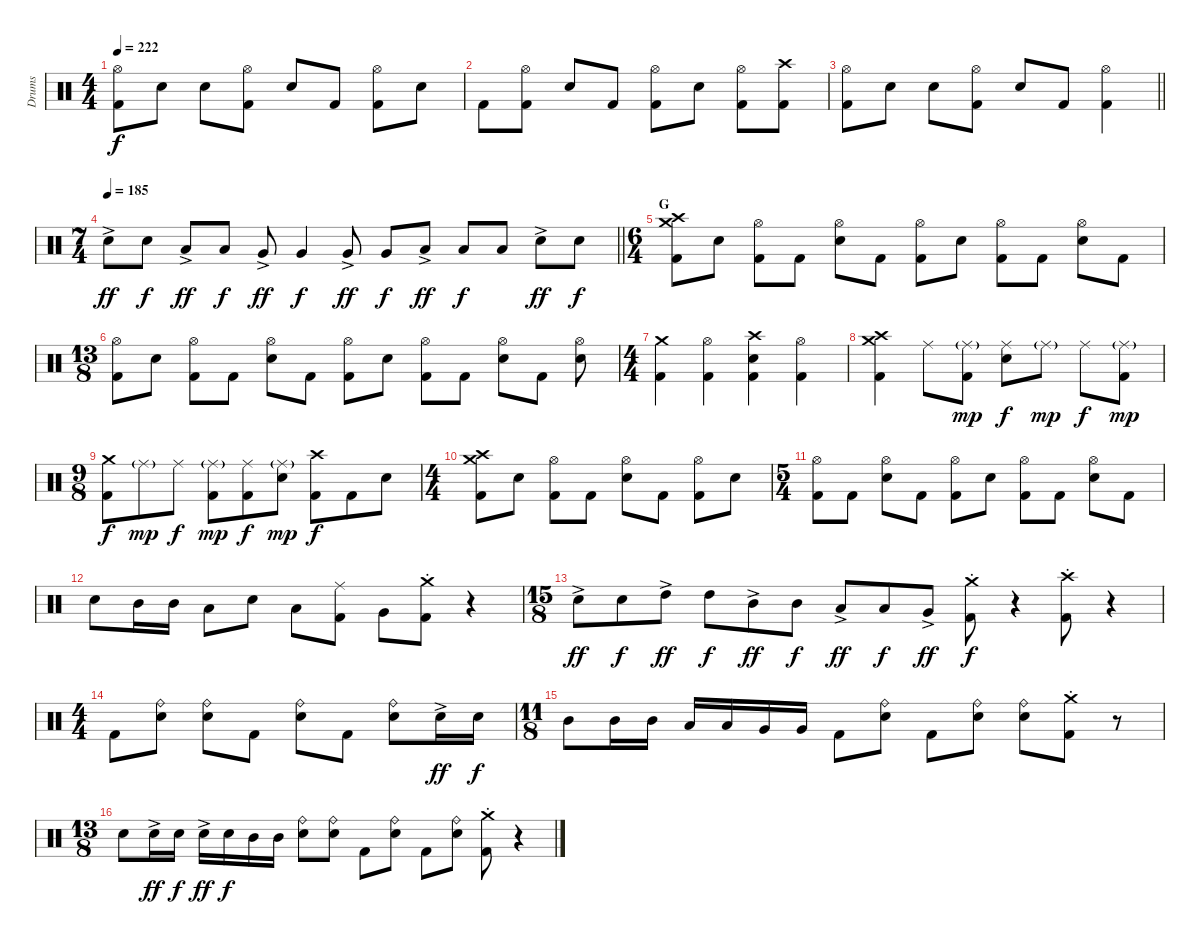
\track ("Drums" "Drums") {instrument percussion}
\staff {score}
\articulation defaults
\ts (4 4)
\tempo 222
\clef neutral
\ks c
("Hi-Hat (open)" "Kick (hit) 2").8{dy f} "Electric Snare (hit)".8 "Electric Snare (hit)".8 ("Hi-Hat (open)" "Kick (hit) 2").8 "Electric Snare (hit)".8 "Kick (hit) 2".8 ("Hi-Hat (open)" "Kick (hit) 2").8 "Electric Snare (hit)".8 |
"Kick (hit) 2".8 ("Hi-Hat (open)" "Kick (hit) 2").8 "Electric Snare (hit)".8 "Kick (hit) 2".8 ("Hi-Hat (open)" "Kick (hit) 2").8 "Electric Snare (hit)".8 ("Hi-Hat (open)" "Kick (hit) 2").8 ("Crash high (hit)" "Kick (hit) 2").8 |
\barLineRight lightlight
("Hi-Hat (open)" "Kick (hit) 2").8 "Electric Snare (hit)".8 "Electric Snare (hit)".8 ("Hi-Hat (open)" "Kick (hit) 2").8 "Electric Snare (hit)".8 "Kick (hit) 2".8 ("Hi-Hat (open)" "Kick (hit) 2").4 |
\ts (7 4)
\section ("" "")
\tempo 185
\barLineRight lightlight "Electric Snare (hit)"{ac}.8{dy ff} "Electric Snare (hit)".8{dy f} "Low Tom (hit)"{ac}.8{dy ff} "Low Tom (hit)".8{dy f} "Very Low Tom (hit)"{ac}.8{dy ff} "Very Low Tom (hit)".4{dy f} "Very Low Tom (hit)"{ac}.8{dy ff} "Very Low Tom (hit)".8{dy f} "Low Floor Tom (hit)"{ac}.8{dy ff} "Low Floor Tom (hit)".8{dy f} "Low Floor Tom (hit)".8 "Electric Snare (hit)"{ac}.8{dy ff} "Electric Snare (hit)".8{dy f}
|
\ts (6 4)
\section ("" "G")
("Crash medium (hit)" "Crash high (hit)" "Kick (hit) 2").8 "Electric Snare (hit)".8 ("Hi-Hat (open)" "Kick (hit) 2").8 "Kick (hit) 2".8 ("Hi-Hat (open)" "Electric Snare (hit)").8 "Kick (hit) 2".8 ("Hi-Hat (open)" "Kick (hit) 2").8 "Electric Snare (hit)".8 ("Hi-Hat (open)" "Kick (hit) 2").8 "Kick (hit) 2".8 ("Hi-Hat (open)" "Electric Snare (hit)").8 "Kick (hit) 2".8 |
\ts (13 8)
("Hi-Hat (open)" "Kick (hit) 2").8 "Electric Snare (hit)".8 ("Hi-Hat (open)" "Kick (hit) 2").8 "Kick (hit) 2".8 ("Hi-Hat (open)" "Electric Snare (hit)").8 "Kick (hit) 2".8 ("Hi-Hat (open)" "Kick (hit) 2").8 "Electric Snare (hit)".8 ("Hi-Hat (open)" "Kick (hit) 2").8 "Kick (hit) 2".8 ("Hi-Hat (open)" "Electric Snare (hit)").8 "Kick (hit) 2".8 ("Hi-Hat (open)" "Electric Snare (hit)").8 |
\ts (4 4)
("Crash medium (hit)" "Kick (hit) 2").4 ("Hi-Hat (open)" "Kick (hit) 2").4 ("Crash high (hit)" "Electric Snare (hit)" "Kick (hit) 2").4 ("Hi-Hat (open)" "Kick (hit) 2").4 |
("Crash medium (hit)" "Crash high (hit)" "Kick (hit) 2").4 "Ride (middle)".8 ("Ride (middle)"{g} "Kick (hit) 2").8{dy mp} ("Ride (middle)" "Electric Snare (hit)").8{dy f} "Ride (middle)"{g}.8{dy mp} "Ride (middle)".8{dy f} ("Ride (middle)"{g} "Kick (hit) 2").8{dy mp} |
\ts (9 8)
("Crash medium (hit)" "Kick (hit) 2").8{dy f} "Ride (middle)"{g}.8{dy mp} "Ride (middle)".8{dy f} ("Ride (middle)"{g} "Kick (hit) 2").8{dy mp} ("Ride (middle)" "Kick (hit) 2").8{dy f} ("Ride (middle)"{g} "Electric Snare (hit)").8{dy mp} ("Crash high (hit)" "Kick (hit) 2").8{dy f} "Kick (hit) 2".8 "Electric Snare (hit)".8 |
\ts (4 4)
("Crash medium (hit)" "Crash high (hit)" "Kick (hit) 2").8 "Electric Snare (hit)".8 ("Hi-Hat (open)" "Kick (hit) 2").8 "Kick (hit) 2".8 ("Hi-Hat (open)" "Electric Snare (hit)").8 "Kick (hit) 2".8 ("Hi-Hat (open)" "Kick (hit) 2").8 "Electric Snare (hit)".8 |
\ts (5 4)
("Hi-Hat (open)" "Kick (hit) 2").8 "Kick (hit) 2".8 ("Hi-Hat (open)" "Electric Snare (hit)").8 "Kick (hit) 2".8 ("Hi-Hat (open)" "Kick (hit) 2").8 "Electric Snare (hit)".8 ("Hi-Hat (open)" "Kick (hit) 2").8 "Kick (hit) 2".8 ("Hi-Hat (open)" "Electric Snare (hit)").8 "Kick (hit) 2".8 |
"Electric Snare (hit)".8 "Mid Tom (hit)".16 "Mid Tom (hit)".16 "Low Tom (hit)".8 "Electric Snare (hit)".8 "Low Tom (hit)".8 ("Ride (middle)" "Kick (hit) 2").8 "Very Low Tom (hit)".8 ("Crash medium (hit)"{st} "Kick (hit) 2").8 r.4{volume 0} |
\ts (15 8)
"Electric Snare (hit)"{ac}.8{dy ff volume 14} "Electric Snare (hit)".8{dy f} "High Tom (hit)"{ac}.8{dy ff} "High Tom (hit)".8{dy f} "Mid Tom (hit)"{ac}.8{dy ff} "Mid Tom (hit)".8{dy f} "Low Tom (hit)"{ac}.8{dy ff} "Low Tom (hit)".8{dy f} "Very Low Tom (hit)"{ac}.8{dy ff} ("Crash medium (hit)"{st} "Kick (hit) 2").8{dy f} r.4{volume 0} ("Crash high (hit)"{st} "Kick (hit) 2").8{volume 14} r.4{volume 0} |
\ts (4 4)
"Kick (hit) 2".8{volume 14} ("Ride (bell)" "Electric Snare (hit)").8 ("Ride (bell)" "Electric Snare (hit)").8 "Kick (hit) 2".8 ("Ride (bell)" "Electric Snare (hit)").8 "Kick (hit) 2".8 ("Ride (bell)" "Electric Snare (hit)").8 "Electric Snare (hit)"{ac}.16{dy ff} "Electric Snare (hit)".16{dy f} |
\ts (11 8)
"Mid Tom (hit)".8 "Mid Tom (hit)".16 "Mid Tom (hit)".16 "Low Tom (hit)".16 "Low Tom (hit)".16 "Very Low Tom (hit)".16 "Very Low Tom (hit)".16 "Kick (hit) 2".8 ("Ride (bell)" "Electric Snare (hit)").8 "Kick (hit) 2".8 ("Ride (bell)" "Electric Snare (hit)").8 ("Ride (bell)" "Electric Snare (hit)").8 ("Crash medium (hit)"{st} "Kick (hit) 2").8 r.8{volume 0} |
\ts (13 8)
"Electric Snare (hit)".8{volume 14} "Electric Snare (hit)"{ac}.16{dy ff} "Electric Snare (hit)".16{dy f} "Electric Snare (hit)"{ac}.16{dy ff} "Electric Snare (hit)".16{dy f} "Mid Tom (hit)".16 "Mid Tom (hit)".16 ("Ride (bell)" "Electric Snare (hit)").8 ("Ride (bell)" "Electric Snare (hit)").8 "Kick (hit) 2".8 ("Ride (bell)" "Electric Snare (hit)").8 "Kick (hit) 2".8 ("Ride (bell)" "Electric Snare (hit)").8 ("Crash medium (hit)"{st} "Kick (hit) 2").8 r.4{volume 0}
